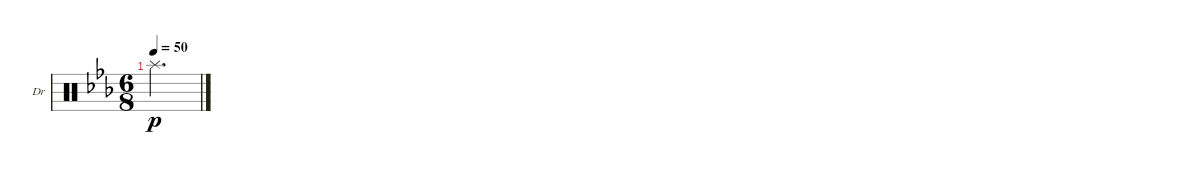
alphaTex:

\defaultSystemsLayout 4
\bracketExtendMode nobrackets
\firstSystemTrackNameOrientation horizontal
\otherSystemsTrackNameOrientation horizontal
\chordDiagramsInScore
\track ("Drums" "Dr") {instrument percussion}
\staff {score}
\articulation defaults
\ts (6 8)
\tempo 50
\clef neutral
\ks eb "Splash (hit)".2{d dy p}
